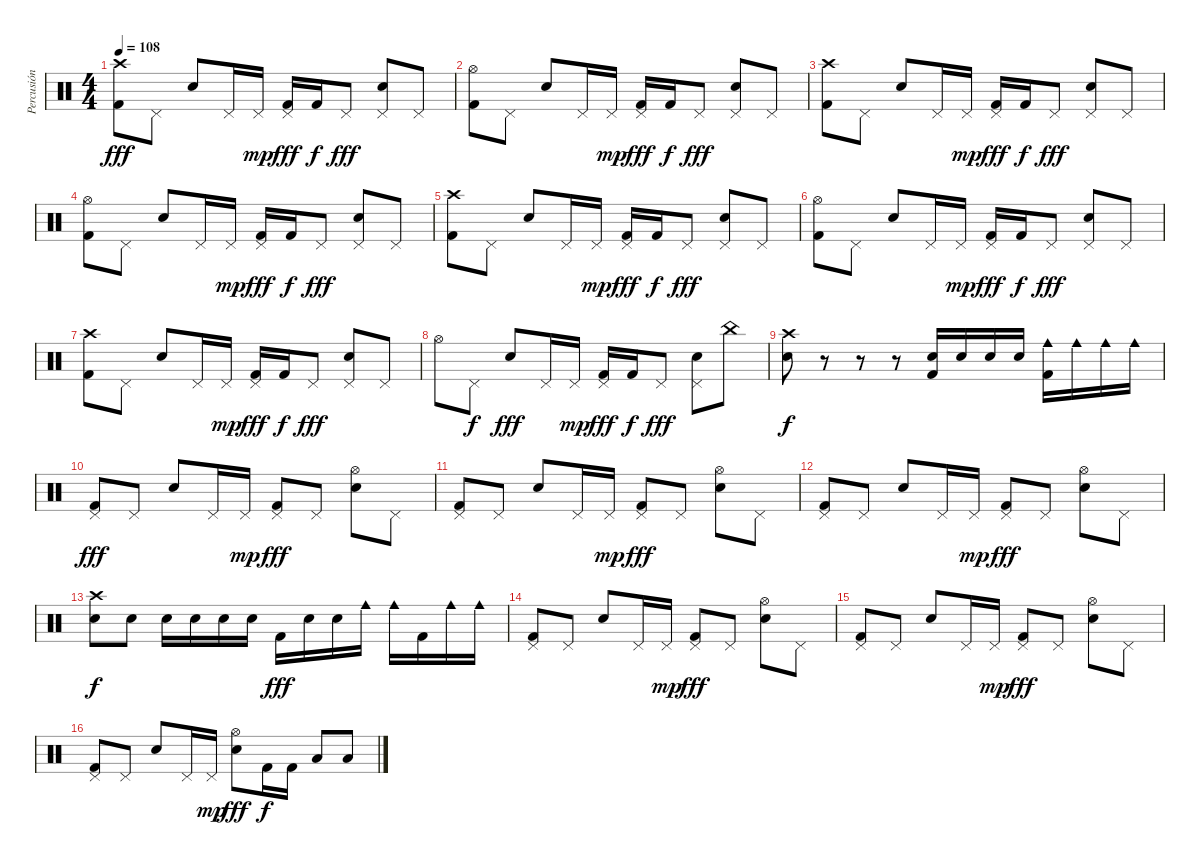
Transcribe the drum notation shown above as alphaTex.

\track ("Percusión" "Percusión") {instrument percussion}
\staff {score}
\articulation defaults
\ts (4 4)
\tempo 108
\clef neutral
\ks c
("Crash high (hit)" "Kick (hit) 2").8{dy fff} "Pedal Hi-Hat (hit)".8 "Snare (hit) 2".8 "Pedal Hi-Hat (hit)".16 "Pedal Hi-Hat (hit)".16{dy mp} ("Pedal Hi-Hat (hit)" "Kick (hit) 2").16{dy fff} "Kick (hit) 2".16{dy f} "Pedal Hi-Hat (hit)".8{dy fff} ("Snare (hit) 2" "Pedal Hi-Hat (hit)").8 "Pedal Hi-Hat (hit)".8 |
("Hi-Hat (open)" "Kick (hit) 2").8 "Pedal Hi-Hat (hit)".8 "Snare (hit) 2".8 "Pedal Hi-Hat (hit)".16 "Pedal Hi-Hat (hit)".16{dy mp} ("Pedal Hi-Hat (hit)" "Kick (hit) 2").16{dy fff} "Kick (hit) 2".16{dy f} "Pedal Hi-Hat (hit)".8{dy fff} ("Snare (hit) 2" "Pedal Hi-Hat (hit)").8 "Pedal Hi-Hat (hit)".8 |
("Crash high (hit)" "Kick (hit) 2").8 "Pedal Hi-Hat (hit)".8 "Snare (hit) 2".8 "Pedal Hi-Hat (hit)".16 "Pedal Hi-Hat (hit)".16{dy mp} ("Pedal Hi-Hat (hit)" "Kick (hit) 2").16{dy fff} "Kick (hit) 2".16{dy f} "Pedal Hi-Hat (hit)".8{dy fff} ("Snare (hit) 2" "Pedal Hi-Hat (hit)").8 "Pedal Hi-Hat (hit)".8 |
("Hi-Hat (open)" "Kick (hit) 2").8 "Pedal Hi-Hat (hit)".8 "Snare (hit) 2".8 "Pedal Hi-Hat (hit)".16 "Pedal Hi-Hat (hit)".16{dy mp} ("Pedal Hi-Hat (hit)" "Kick (hit) 2").16{dy fff} "Kick (hit) 2".16{dy f} "Pedal Hi-Hat (hit)".8{dy fff} ("Snare (hit) 2" "Pedal Hi-Hat (hit)").8 "Pedal Hi-Hat (hit)".8 |
("Crash high (hit)" "Kick (hit) 2").8 "Pedal Hi-Hat (hit)".8 "Snare (hit) 2".8 "Pedal Hi-Hat (hit)".16 "Pedal Hi-Hat (hit)".16{dy mp} ("Pedal Hi-Hat (hit)" "Kick (hit) 2").16{dy fff} "Kick (hit) 2".16{dy f} "Pedal Hi-Hat (hit)".8{dy fff} ("Snare (hit) 2" "Pedal Hi-Hat (hit)").8 "Pedal Hi-Hat (hit)".8 |
("Hi-Hat (open)" "Kick (hit) 2").8 "Pedal Hi-Hat (hit)".8 "Snare (hit) 2".8 "Pedal Hi-Hat (hit)".16 "Pedal Hi-Hat (hit)".16{dy mp} ("Pedal Hi-Hat (hit)" "Kick (hit) 2").16{dy fff} "Kick (hit) 2".16{dy f} "Pedal Hi-Hat (hit)".8{dy fff} ("Snare (hit) 2" "Pedal Hi-Hat (hit)").8 "Pedal Hi-Hat (hit)".8 |
("Crash high (hit)" "Kick (hit) 2").8 "Pedal Hi-Hat (hit)".8 "Snare (hit) 2".8 "Pedal Hi-Hat (hit)".16 "Pedal Hi-Hat (hit)".16{dy mp} ("Pedal Hi-Hat (hit)" "Kick (hit) 2").16{dy fff} "Kick (hit) 2".16{dy f} "Pedal Hi-Hat (hit)".8{dy fff} ("Snare (hit) 2" "Pedal Hi-Hat (hit)").8 "Pedal Hi-Hat (hit)".8 |
"Hi-Hat (open)".8 "Pedal Hi-Hat (hit)".8{dy f} "Snare (hit) 2".8{dy fff} "Pedal Hi-Hat (hit)".16 "Pedal Hi-Hat (hit)".16{dy mp} ("Pedal Hi-Hat (hit)" "Kick (hit) 2").16{dy fff} "Kick (hit) 2".16{dy f} "Pedal Hi-Hat (hit)".8{dy fff} ("Snare (hit) 2" "Pedal Hi-Hat (hit)").8 "China (hit)".8 |
("Crash high (hit)" "Snare (hit) 2").8{dy f} r.8 r.8 r.8 ("Snare (hit) 2" "Kick (hit) 2").16 "Snare (hit) 2".16 "Snare (hit) 2".16 "Snare (hit) 2".16 ("Cowbell medium (hit)" "Kick (hit) 2").16 "Cowbell medium (hit)".16 "Cowbell medium (hit)".16 "Cowbell medium (hit)".16 |
("Pedal Hi-Hat (hit)" "Kick (hit) 2").8{dy fff} "Pedal Hi-Hat (hit)".8 "Snare (hit) 2".8 "Pedal Hi-Hat (hit)".16 "Pedal Hi-Hat (hit)".16{dy mp} ("Pedal Hi-Hat (hit)" "Kick (hit) 2").8{dy fff} "Pedal Hi-Hat (hit)".8 ("Snare (hit) 2" "Hi-Hat (open)").8 "Pedal Hi-Hat (hit)".8 |
("Pedal Hi-Hat (hit)" "Kick (hit) 2").8 "Pedal Hi-Hat (hit)".8 "Snare (hit) 2".8 "Pedal Hi-Hat (hit)".16 "Pedal Hi-Hat (hit)".16{dy mp} ("Pedal Hi-Hat (hit)" "Kick (hit) 2").8{dy fff} "Pedal Hi-Hat (hit)".8 ("Snare (hit) 2" "Hi-Hat (open)").8 "Pedal Hi-Hat (hit)".8 |
("Pedal Hi-Hat (hit)" "Kick (hit) 2").8 "Pedal Hi-Hat (hit)".8 "Snare (hit) 2".8 "Pedal Hi-Hat (hit)".16 "Pedal Hi-Hat (hit)".16{dy mp} ("Pedal Hi-Hat (hit)" "Kick (hit) 2").8{dy fff} "Pedal Hi-Hat (hit)".8 ("Snare (hit) 2" "Hi-Hat (open)").8 "Pedal Hi-Hat (hit)".8 |
("Crash high (hit)" "Snare (hit) 2").8{dy f} "Snare (hit) 2".8 "Snare (hit) 2".16 "Snare (hit) 2".16 "Snare (hit) 2".16 "Snare (hit) 2".16 "Kick (hit) 2".16{dy fff} "Snare (hit) 2".16 "Snare (hit) 2".16 "Cowbell medium (hit)".16 "Cowbell medium (hit)".16 "Kick (hit) 2".16 "Cowbell medium (hit)".16 "Cowbell medium (hit)".16 |
("Pedal Hi-Hat (hit)" "Kick (hit) 2").8 "Pedal Hi-Hat (hit)".8 "Snare (hit) 2".8 "Pedal Hi-Hat (hit)".16 "Pedal Hi-Hat (hit)".16{dy mp} ("Pedal Hi-Hat (hit)" "Kick (hit) 2").8{dy fff} "Pedal Hi-Hat (hit)".8 ("Snare (hit) 2" "Hi-Hat (open)").8 "Pedal Hi-Hat (hit)".8 |
("Pedal Hi-Hat (hit)" "Kick (hit) 2").8 "Pedal Hi-Hat (hit)".8 "Snare (hit) 2".8 "Pedal Hi-Hat (hit)".16 "Pedal Hi-Hat (hit)".16{dy mp} ("Pedal Hi-Hat (hit)" "Kick (hit) 2").8{dy fff} "Pedal Hi-Hat (hit)".8 ("Snare (hit) 2" "Hi-Hat (open)").8 "Pedal Hi-Hat (hit)".8 |
("Pedal Hi-Hat (hit)" "Kick (hit) 2").8 "Pedal Hi-Hat (hit)".8 "Snare (hit) 2".8 "Pedal Hi-Hat (hit)".16 "Pedal Hi-Hat (hit)".16{dy mp} ("Hi-Hat (open)" "Snare (hit) 2").8{dy fff} "Kick (hit) 2".16{dy f} "Kick (hit) 2".16 "Low Floor Tom (hit)".8 "Low Floor Tom (hit)".8
